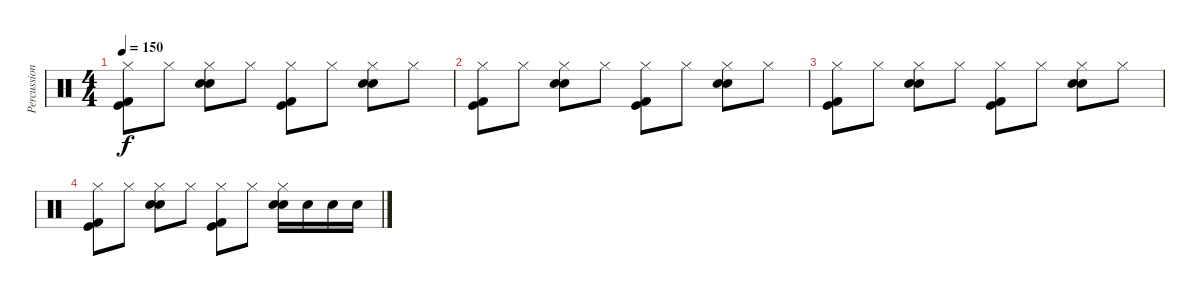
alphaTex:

\track ("Percussion" "Percussion") {instrument percussion}
\staff {score}
\articulation defaults
\ts (4 4)
\tempo 150
\clef neutral
\ks c
("Hi-Hat (closed)" "Kick (hit) 2" "Kick (hit)").8{dy f} "Hi-Hat (closed)".8 ("Hi-Hat (closed)" "Snare (hit) 2" "Snare (hit) 2").8 "Hi-Hat (closed)".8 ("Hi-Hat (closed)" "Kick (hit) 2" "Kick (hit)").8 "Hi-Hat (closed)".8 ("Hi-Hat (closed)" "Snare (hit) 2" "Snare (hit) 2").8 "Hi-Hat (closed)".8 |
("Hi-Hat (closed)" "Kick (hit) 2" "Kick (hit)").8 "Hi-Hat (closed)".8 ("Hi-Hat (closed)" "Snare (hit) 2" "Snare (hit) 2").8 "Hi-Hat (closed)".8 ("Hi-Hat (closed)" "Kick (hit) 2" "Kick (hit)").8 "Hi-Hat (closed)".8 ("Hi-Hat (closed)" "Snare (hit) 2" "Snare (hit) 2").8 "Hi-Hat (closed)".8 |
("Hi-Hat (closed)" "Kick (hit) 2" "Kick (hit)").8 "Hi-Hat (closed)".8 ("Hi-Hat (closed)" "Snare (hit) 2" "Snare (hit) 2").8 "Hi-Hat (closed)".8 ("Hi-Hat (closed)" "Kick (hit) 2" "Kick (hit)").8 "Hi-Hat (closed)".8 ("Hi-Hat (closed)" "Snare (hit) 2" "Snare (hit) 2").8 "Hi-Hat (closed)".8 |
("Hi-Hat (closed)" "Kick (hit) 2" "Kick (hit)").8 "Hi-Hat (closed)".8 ("Hi-Hat (closed)" "Snare (hit) 2" "Snare (hit) 2").8 "Hi-Hat (closed)".8 ("Hi-Hat (closed)" "Kick (hit) 2" "Kick (hit)").8 "Hi-Hat (closed)".8 ("Hi-Hat (closed)" "Snare (hit) 2" "Snare (hit) 2").16 "Snare (hit) 2".16 "Snare (hit) 2".16 "Snare (hit) 2".16
